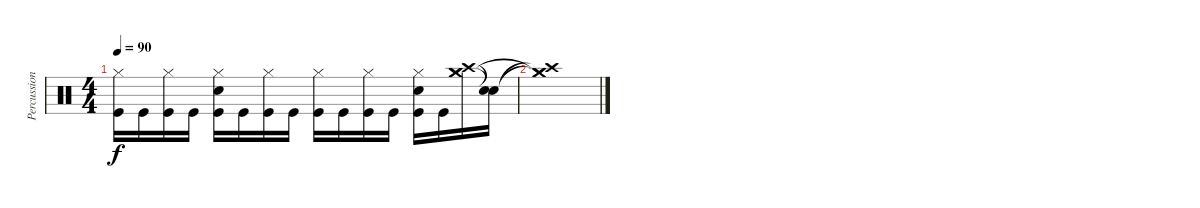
\track ("Percussion" "Percussion") {instrument percussion}
\staff {score}
\articulation defaults
\ts (4 4)
\tempo 90
\clef neutral
\ks c
("Hi-Hat (closed)" "Kick (hit)").16{dy f} "Kick (hit)".16 ("Hi-Hat (closed)" "Kick (hit)").16 "Kick (hit)".16 ("Hi-Hat (closed)" "Electric Snare (hit)" "Kick (hit)").16 "Kick (hit)".16 ("Hi-Hat (closed)" "Kick (hit)").16 "Kick (hit)".16 ("Hi-Hat (closed)" "Kick (hit)").16 "Kick (hit)".16 ("Hi-Hat (closed)" "Kick (hit)").16 "Kick (hit)".16 ("Hi-Hat (closed)" "Electric Snare (hit)" "Kick (hit)").16 "Kick (hit)".16 ("Crash medium (hit)" "Crash high (hit)" "Crash medium (hit)").16 ("Snare (hit)"{t} "Snare (hit)"{t}).16 |
("Crash medium (hit)"{t} "Crash high (hit)"{t} "Crash medium (hit)"{t}).1
